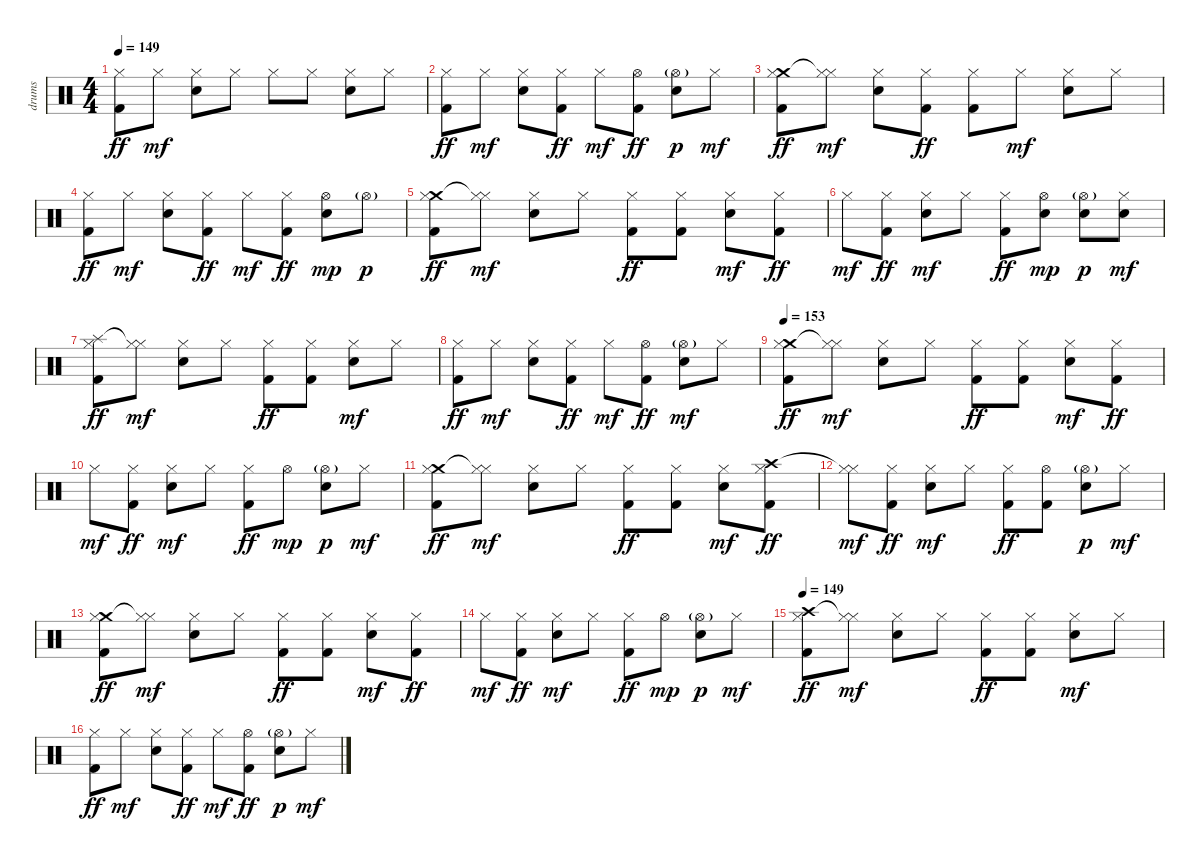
\track ("drums" "drums") {instrument percussion}
\staff {score}
\articulation defaults
\ts (4 4)
\tempo 149
\clef neutral
\ks c
("Hi-Hat (closed)" "Kick (hit) 2").8{dy ff} "Hi-Hat (closed)".8{dy mf} ("Hi-Hat (closed)" "Electric Snare (hit)").8 "Hi-Hat (closed)".8 "Hi-Hat (closed)".8 "Hi-Hat (closed)".8 ("Hi-Hat (closed)" "Electric Snare (hit)").8 "Hi-Hat (closed)".8 |
("Hi-Hat (closed)" "Kick (hit) 2").8{dy ff} "Hi-Hat (closed)".8{dy mf} ("Hi-Hat (closed)" "Electric Snare (hit)").8 ("Hi-Hat (closed)" "Kick (hit) 2").8{dy ff} "Hi-Hat (closed)".8{dy mf} ("Hi-Hat (open)" "Kick (hit) 2").8{dy ff} ("Hi-Hat (open)"{g} "Electric Snare (hit)").8{dy p} "Hi-Hat (closed)".8{dy mf} |
("Crash medium (hit)" "Hi-Hat (closed)" "Kick (hit) 2").8{dy ff} ("Hi-Hat (closed)"{t} "Hi-Hat (closed)").8{dy mf} ("Hi-Hat (closed)" "Electric Snare (hit)").8 ("Hi-Hat (closed)" "Kick (hit) 2").8{dy ff} ("Hi-Hat (closed)" "Kick (hit) 2").8 "Hi-Hat (closed)".8{dy mf} ("Hi-Hat (closed)" "Electric Snare (hit)").8 "Hi-Hat (closed)".8 |
("Hi-Hat (closed)" "Kick (hit) 2").8{dy ff} "Hi-Hat (closed)".8{dy mf} ("Hi-Hat (closed)" "Electric Snare (hit)").8 ("Hi-Hat (closed)" "Kick (hit) 2").8{dy ff} "Hi-Hat (closed)".8{dy mf} ("Hi-Hat (closed)" "Kick (hit) 2").8{dy ff} ("Hi-Hat (open)" "Electric Snare (hit)").8{dy mp} "Hi-Hat (open)"{g}.8{dy p} |
("Crash medium (hit)" "Hi-Hat (closed)" "Kick (hit) 2").8{dy ff} ("Hi-Hat (closed)"{t} "Hi-Hat (closed)").8{dy mf} ("Hi-Hat (closed)" "Electric Snare (hit)").8 "Hi-Hat (closed)".8 ("Hi-Hat (closed)" "Kick (hit) 2").8{dy ff} ("Hi-Hat (closed)" "Kick (hit) 2").8 ("Hi-Hat (closed)" "Electric Snare (hit)").8{dy mf} ("Hi-Hat (closed)" "Kick (hit) 2").8{dy ff} |
"Hi-Hat (closed)".8{dy mf} ("Hi-Hat (closed)" "Kick (hit) 2").8{dy ff} ("Hi-Hat (closed)" "Electric Snare (hit)").8{dy mf} "Hi-Hat (closed)".8 ("Hi-Hat (closed)" "Kick (hit) 2").8{dy ff} ("Hi-Hat (open)" "Electric Snare (hit)").8{dy mp} ("Hi-Hat (open)"{g} "Electric Snare (hit)").8{dy p} ("Hi-Hat (closed)" "Electric Snare (hit)").8{dy mf} |
("Splash (hit)" "Hi-Hat (closed)" "Kick (hit) 2").8{dy ff} ("Hi-Hat (closed)"{t} "Hi-Hat (closed)").8{dy mf} ("Hi-Hat (closed)" "Electric Snare (hit)").8 "Hi-Hat (closed)".8 ("Hi-Hat (closed)" "Kick (hit) 2").8{dy ff} ("Hi-Hat (closed)" "Kick (hit) 2").8 ("Hi-Hat (closed)" "Electric Snare (hit)").8{dy mf} "Hi-Hat (closed)".8 |
("Hi-Hat (closed)" "Kick (hit) 2").8{dy ff} "Hi-Hat (closed)".8{dy mf} ("Hi-Hat (closed)" "Electric Snare (hit)").8 ("Hi-Hat (closed)" "Kick (hit) 2").8{dy ff} "Hi-Hat (closed)".8{dy mf} ("Hi-Hat (open)" "Kick (hit) 2").8{dy ff} ("Hi-Hat (open)"{g} "Electric Snare (hit)").8{dy mf} "Hi-Hat (closed)".8 |
\tempo 153
("Crash medium (hit)" "Hi-Hat (closed)" "Kick (hit) 2").8{dy ff} ("Hi-Hat (closed)"{t} "Hi-Hat (closed)").8{dy mf} ("Hi-Hat (closed)" "Electric Snare (hit)").8 "Hi-Hat (closed)".8 ("Hi-Hat (closed)" "Kick (hit) 2").8{dy ff} ("Hi-Hat (closed)" "Kick (hit) 2").8 ("Hi-Hat (closed)" "Electric Snare (hit)").8{dy mf} ("Hi-Hat (closed)" "Kick (hit) 2").8{dy ff} |
"Hi-Hat (closed)".8{dy mf} ("Hi-Hat (closed)" "Kick (hit) 2").8{dy ff} ("Hi-Hat (closed)" "Electric Snare (hit)").8{dy mf} "Hi-Hat (closed)".8 ("Hi-Hat (closed)" "Kick (hit) 2").8{dy ff} "Hi-Hat (open)".8{dy mp} ("Hi-Hat (open)"{g} "Electric Snare (hit)").8{dy p} "Hi-Hat (closed)".8{dy mf} |
("Crash medium (hit)" "Hi-Hat (closed)" "Kick (hit) 2").8{dy ff} ("Hi-Hat (closed)"{t} "Hi-Hat (closed)").8{dy mf} ("Hi-Hat (closed)" "Electric Snare (hit)").8 "Hi-Hat (closed)".8 ("Hi-Hat (closed)" "Kick (hit) 2").8{dy ff} ("Hi-Hat (closed)" "Kick (hit) 2").8 ("Hi-Hat (closed)" "Electric Snare (hit)").8{dy mf} ("Crash high (hit)" "Hi-Hat (closed)" "Kick (hit) 2").8{dy ff} |
("Hi-Hat (closed)"{t} "Hi-Hat (closed)").8{dy mf} ("Hi-Hat (closed)" "Kick (hit) 2").8{dy ff} ("Hi-Hat (closed)" "Electric Snare (hit)").8{dy mf} "Hi-Hat (closed)".8 ("Hi-Hat (closed)" "Kick (hit) 2").8{dy ff} ("Hi-Hat (open)" "Kick (hit) 2").8 ("Hi-Hat (open)"{g} "Electric Snare (hit)").8{dy p} "Hi-Hat (closed)".8{dy mf} |
("Crash medium (hit)" "Hi-Hat (closed)" "Kick (hit) 2").8{dy ff} ("Hi-Hat (closed)"{t} "Hi-Hat (closed)").8{dy mf} ("Hi-Hat (closed)" "Electric Snare (hit)").8 "Hi-Hat (closed)".8 ("Hi-Hat (closed)" "Kick (hit) 2").8{dy ff} ("Hi-Hat (closed)" "Kick (hit) 2").8 ("Hi-Hat (closed)" "Electric Snare (hit)").8{dy mf} ("Hi-Hat (closed)" "Kick (hit) 2").8{dy ff} |
"Hi-Hat (closed)".8{dy mf} ("Hi-Hat (closed)" "Kick (hit) 2").8{dy ff} ("Hi-Hat (closed)" "Electric Snare (hit)").8{dy mf} "Hi-Hat (closed)".8 ("Hi-Hat (closed)" "Kick (hit) 2").8{dy ff} "Hi-Hat (open)".8{dy mp} ("Hi-Hat (open)"{g} "Electric Snare (hit)").8{dy p} "Hi-Hat (closed)".8{dy mf} |
\tempo 149
("Crash high (hit)" "Hi-Hat (closed)" "Kick (hit) 2").8{dy ff} ("Hi-Hat (closed)"{t} "Hi-Hat (closed)").8{dy mf} ("Hi-Hat (closed)" "Electric Snare (hit)").8 "Hi-Hat (closed)".8 ("Hi-Hat (closed)" "Kick (hit) 2").8{dy ff} ("Hi-Hat (closed)" "Kick (hit) 2").8 ("Hi-Hat (closed)" "Electric Snare (hit)").8{dy mf} "Hi-Hat (closed)".8 |
("Hi-Hat (closed)" "Kick (hit) 2").8{dy ff} "Hi-Hat (closed)".8{dy mf} ("Hi-Hat (closed)" "Electric Snare (hit)").8 ("Hi-Hat (closed)" "Kick (hit) 2").8{dy ff} "Hi-Hat (closed)".8{dy mf} ("Hi-Hat (open)" "Kick (hit) 2").8{dy ff} ("Hi-Hat (open)"{g} "Electric Snare (hit)").8{dy p} "Hi-Hat (closed)".8{dy mf}
